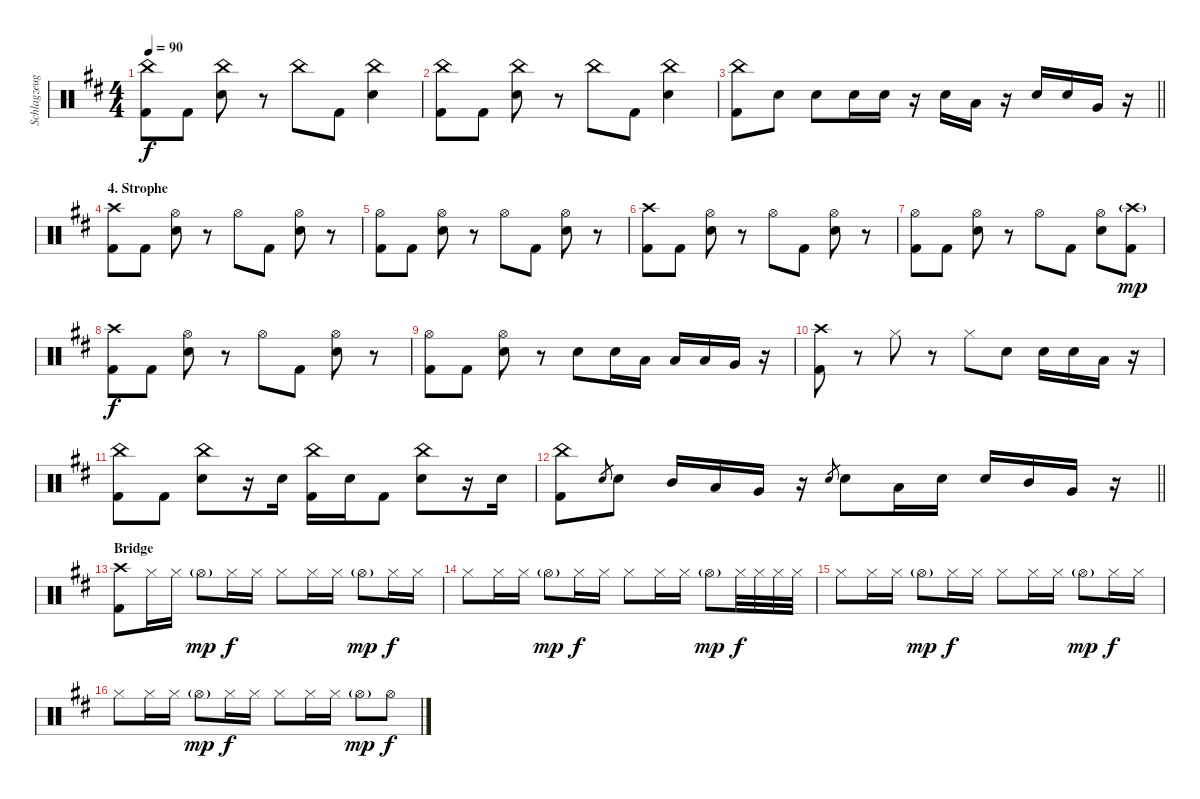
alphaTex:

\track ("Schlagzeug" "Schlagzeug") {instrument percussion}
\staff {score}
\articulation defaults
\ts (4 4)
\tempo 90
\clef neutral
\ks d
("China (hit)" "Kick (hit) 2").8{dy f} "Kick (hit) 2".8 ("China (hit)" "Electric Snare (hit)").8 r.8 "China (hit)".8 "Kick (hit) 2".8 ("China (hit)" "Electric Snare (hit)").4 |
("China (hit)" "Kick (hit) 2").8 "Kick (hit) 2".8 ("China (hit)" "Electric Snare (hit)").8 r.8 "China (hit)".8 "Kick (hit) 2".8 ("China (hit)" "Electric Snare (hit)").4 |
\barLineRight lightlight
("China (hit)" "Kick (hit) 2").8 "Electric Snare (hit)".8 "Electric Snare (hit)".8 "Electric Snare (hit)".16 "Electric Snare (hit)".16 r.16 "Electric Snare (hit)".16 "Low Tom (hit)".16 r.16 "Electric Snare (hit)".16 "Electric Snare (hit)".16 "Very Low Tom (hit)".16 r.16 |
\section ("" "4. Strophe")
("Crash high (hit)" "Kick (hit) 2").8 "Kick (hit) 2".8 ("Hi-Hat (open)" "Electric Snare (hit)").8 r.8 "Hi-Hat (open)".8 "Kick (hit) 2".8 ("Hi-Hat (open)" "Electric Snare (hit)").8 r.8 |
("Hi-Hat (open)" "Kick (hit) 2").8 "Kick (hit) 2".8 ("Hi-Hat (open)" "Electric Snare (hit)").8 r.8 "Hi-Hat (open)".8 "Kick (hit) 2".8 ("Hi-Hat (open)" "Electric Snare (hit)").8 r.8 |
("Crash high (hit)" "Kick (hit) 2").8 "Kick (hit) 2".8 ("Hi-Hat (open)" "Electric Snare (hit)").8 r.8 "Hi-Hat (open)".8 "Kick (hit) 2".8 ("Hi-Hat (open)" "Electric Snare (hit)").8 r.8 |
("Hi-Hat (open)" "Kick (hit) 2").8 "Kick (hit) 2".8 ("Hi-Hat (open)" "Electric Snare (hit)").8 r.8 "Hi-Hat (open)".8 "Kick (hit) 2".8 ("Hi-Hat (open)" "Electric Snare (hit)").8 ("Crash high (hit)"{g} "Kick (hit) 2").8{dy mp} |
("Crash high (hit)" "Kick (hit) 2").8{dy f} "Kick (hit) 2".8 ("Hi-Hat (open)" "Electric Snare (hit)").8 r.8 "Hi-Hat (open)".8 "Kick (hit) 2".8 ("Hi-Hat (open)" "Electric Snare (hit)").8 r.8 |
("Hi-Hat (open)" "Kick (hit) 2").8 "Kick (hit) 2".8 ("Hi-Hat (open)" "Electric Snare (hit)").8 r.8 "Electric Snare (hit)".8 "Electric Snare (hit)".16 "Low Tom (hit)".16 "Low Tom (hit)".16 "Low Tom (hit)".16 "Very Low Tom (hit)".16 r.16 |
("Crash high (hit)" "Kick (hit) 2").8 r.8 "Hi-Hat (closed)".8 r.8 "Hi-Hat (closed)".8 "Electric Snare (hit)".8 "Electric Snare (hit)".16 "Electric Snare (hit)".16 "Low Tom (hit)".16 r.16 |
("China (hit)" "Kick (hit) 2").8 "Kick (hit) 2".8 ("China (hit)" "Electric Snare (hit)").8 r.16 "Electric Snare (hit)".16 ("China (hit)" "Kick (hit) 2").16 "Electric Snare (hit)".16 "Kick (hit) 2".8 ("China (hit)" "Electric Snare (hit)").8 r.16 "Electric Snare (hit)".16 |
\barLineRight lightlight
("China (hit)" "Kick (hit) 2").8 "Electric Snare (hit)".8{gr} "Electric Snare (hit)".8 "Mid Tom (hit)".16 "Low Tom (hit)".16 "Very Low Tom (hit)".16 r.16 "Electric Snare (hit)".8{gr} "Electric Snare (hit)".8 "Low Tom (hit)".16 "Electric Snare (hit)".16 "Electric Snare (hit)".16 "Mid Tom (hit)".16 "Very Low Tom (hit)".16 r.16 |
\section ("" "Bridge")
("Crash high (hit)" "Kick (hit) 2").8 "Hi-Hat (closed)".16 "Hi-Hat (closed)".16 "Hi-Hat (open)"{g}.8{dy mp} "Hi-Hat (closed)".16{dy f} "Hi-Hat (closed)".16 "Hi-Hat (closed)".8 "Hi-Hat (closed)".16 "Hi-Hat (closed)".16 "Hi-Hat (open)"{g}.8{dy mp} "Hi-Hat (closed)".16{dy f} "Hi-Hat (closed)".16 |
"Hi-Hat (closed)".8 "Hi-Hat (closed)".16 "Hi-Hat (closed)".16 "Hi-Hat (open)"{g}.8{dy mp} "Hi-Hat (closed)".16{dy f} "Hi-Hat (closed)".16 "Hi-Hat (closed)".8 "Hi-Hat (closed)".16 "Hi-Hat (closed)".16 "Hi-Hat (open)"{g}.8{dy mp} "Hi-Hat (closed)".32{dy f} "Hi-Hat (closed)".32 "Hi-Hat (closed)".32 "Hi-Hat (closed)".32 |
"Hi-Hat (closed)".8 "Hi-Hat (closed)".16 "Hi-Hat (closed)".16 "Hi-Hat (open)"{g}.8{dy mp} "Hi-Hat (closed)".16{dy f} "Hi-Hat (closed)".16 "Hi-Hat (closed)".8 "Hi-Hat (closed)".16 "Hi-Hat (closed)".16 "Hi-Hat (open)"{g}.8{dy mp} "Hi-Hat (closed)".16{dy f} "Hi-Hat (closed)".16 |
"Hi-Hat (closed)".8 "Hi-Hat (closed)".16 "Hi-Hat (closed)".16 "Hi-Hat (open)"{g}.8{dy mp} "Hi-Hat (closed)".16{dy f} "Hi-Hat (closed)".16 "Hi-Hat (closed)".8 "Hi-Hat (closed)".16 "Hi-Hat (closed)".16 "Hi-Hat (open)"{g}.8{dy mp} "Hi-Hat (open)".8{dy f}
